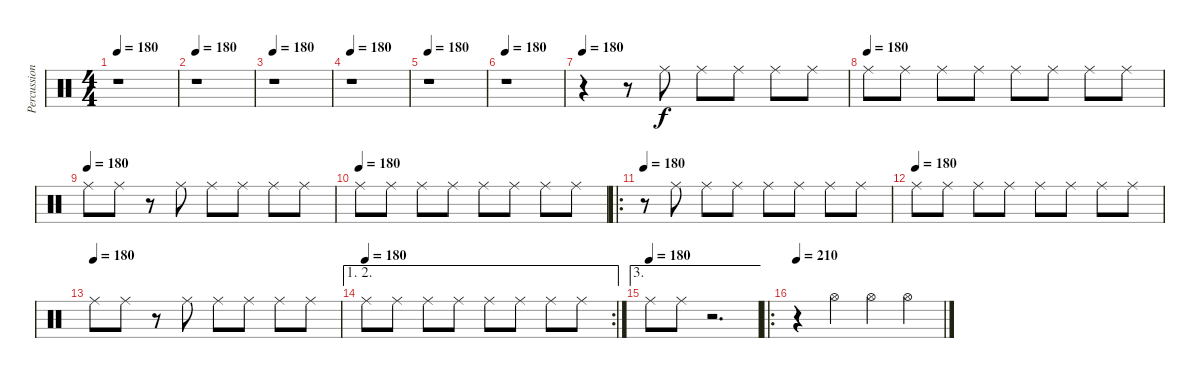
\track ("Percussion" "Percussion") {instrument percussion}
\staff {score}
\articulation defaults
\ts (4 4)
\tempo 180
\clef neutral
\ks c
r.1{dy f} |
\tempo 180
r.1 |
\tempo 180
r.1 |
\tempo 180
r.1 |
\tempo 180
r.1 |
\tempo 180
r.1 |
\tempo 180
r.4 r.8 "Ride (middle)".8 "Ride (middle)".8 "Ride (middle)".8 "Ride (middle)".8 "Ride (middle)".8 |
\tempo (180)
"Ride (middle)".8 "Ride (middle)".8 "Ride (middle)".8 "Ride (middle)".8 "Ride (middle)".8 "Ride (middle)".8 "Ride (middle)".8 "Ride (middle)".8 |
\tempo (180)
"Ride (middle)".8 "Ride (middle)".8 r.8 "Ride (middle)".8 "Ride (middle)".8 "Ride (middle)".8 "Ride (middle)".8 "Ride (middle)".8 |
\tempo (180)
"Ride (middle)".8 "Ride (middle)".8 "Ride (middle)".8 "Ride (middle)".8 "Ride (middle)".8 "Ride (middle)".8 "Ride (middle)".8 "Ride (middle)".8 |
\ro
\tempo 180
r.8 "Ride (middle)".8 "Ride (middle)".8 "Ride (middle)".8 "Ride (middle)".8 "Ride (middle)".8 "Ride (middle)".8 "Ride (middle)".8 |
\tempo (180)
"Ride (middle)".8 "Ride (middle)".8 "Ride (middle)".8 "Ride (middle)".8 "Ride (middle)".8 "Ride (middle)".8 "Ride (middle)".8 "Ride (middle)".8 |
\tempo (180)
"Ride (middle)".8 "Ride (middle)".8 r.8 "Ride (middle)".8 "Ride (middle)".8 "Ride (middle)".8 "Ride (middle)".8 "Ride (middle)".8 |
\ae (1 2)
\rc 2
\tempo (180)
"Ride (middle)".8 "Ride (middle)".8 "Ride (middle)".8 "Ride (middle)".8 "Ride (middle)".8 "Ride (middle)".8 "Ride (middle)".8 "Ride (middle)".8 |
\ae 3
\tempo (180)
"Ride (middle)".8 "Ride (middle)".8 r.2{d} |
\ro
\tempo 210
r.4 "Hi-Hat (open)".4 "Hi-Hat (open)".4 "Hi-Hat (open)".4
